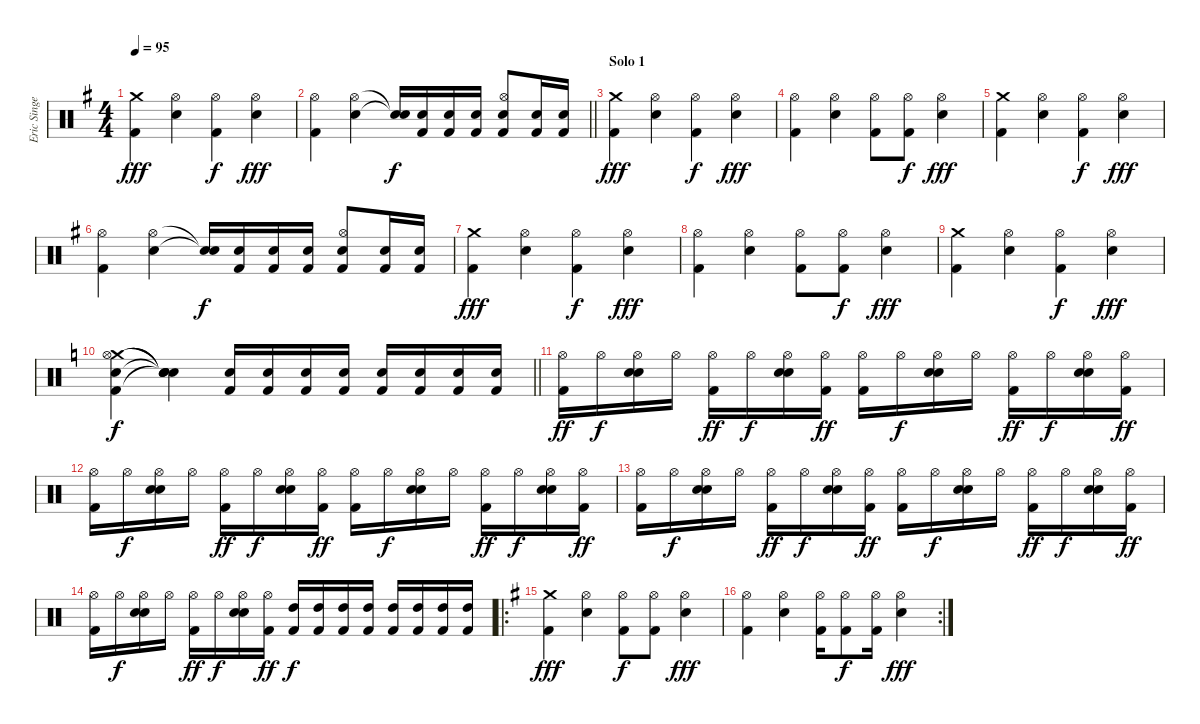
\track ("Eric Singer" "Eric Singe") {instrument percussion}
\staff {score}
\articulation defaults
\ts (4 4)
\tempo 95
\clef neutral
\ks eminor
("Crash medium (hit)" "Kick (hit) 2").4{dy fff} ("Hi-Hat (open)" "Electric Snare (hit)").4 ("Hi-Hat (open)" "Kick (hit) 2").4{dy f} ("Hi-Hat (open)" "Electric Snare (hit)").4{dy fff} |
\barLineRight lightlight
("Hi-Hat (open)" "Kick (hit) 2").4 ("Hi-Hat (open)" "Electric Snare (hit)").4 ("Snare (hit)"{t} "Snare (hit)"{t}).16{dy f} ("Electric Snare (hit)" "Kick (hit) 2").16 ("Electric Snare (hit)" "Kick (hit) 2").16 ("Electric Snare (hit)" "Kick (hit) 2").16 ("Hi-Hat (open)" "Snare (hit) 2" "Kick (hit) 2").8 ("Snare (hit) 2" "Kick (hit) 2").16 ("Snare (hit) 2" "Kick (hit) 2").16 |
\section ("" "Solo 1")
("Crash medium (hit)" "Kick (hit) 2").4{dy fff} ("Hi-Hat (open)" "Electric Snare (hit)").4 ("Hi-Hat (open)" "Kick (hit) 2").4{dy f} ("Hi-Hat (open)" "Electric Snare (hit)").4{dy fff} |
("Hi-Hat (open)" "Kick (hit) 2").4 ("Hi-Hat (open)" "Electric Snare (hit)").4 ("Hi-Hat (open)" "Kick (hit) 2").8 ("Hi-Hat (open)" "Kick (hit) 2").8{dy f} ("Hi-Hat (open)" "Electric Snare (hit)").4{dy fff} |
("Crash medium (hit)" "Kick (hit) 2").4 ("Hi-Hat (open)" "Electric Snare (hit)").4 ("Hi-Hat (open)" "Kick (hit) 2").4{dy f} ("Hi-Hat (open)" "Electric Snare (hit)").4{dy fff} |
("Hi-Hat (open)" "Kick (hit) 2").4 ("Hi-Hat (open)" "Electric Snare (hit)").4 ("Snare (hit)"{t} "Snare (hit)"{t}).16{dy f} ("Electric Snare (hit)" "Kick (hit) 2").16 ("Electric Snare (hit)" "Kick (hit) 2").16 ("Electric Snare (hit)" "Kick (hit) 2").16 ("Hi-Hat (open)" "Snare (hit) 2" "Kick (hit) 2").8 ("Snare (hit) 2" "Kick (hit) 2").16 ("Snare (hit) 2" "Kick (hit) 2").16 |
("Crash medium (hit)" "Kick (hit) 2").4{dy fff} ("Hi-Hat (open)" "Electric Snare (hit)").4 ("Hi-Hat (open)" "Kick (hit) 2").4{dy f} ("Hi-Hat (open)" "Electric Snare (hit)").4{dy fff} |
("Hi-Hat (open)" "Kick (hit) 2").4 ("Hi-Hat (open)" "Electric Snare (hit)").4 ("Hi-Hat (open)" "Kick (hit) 2").8 ("Hi-Hat (open)" "Kick (hit) 2").8{dy f} ("Hi-Hat (open)" "Electric Snare (hit)").4{dy fff} |
("Crash medium (hit)" "Kick (hit) 2").4 ("Hi-Hat (open)" "Electric Snare (hit)").4 ("Hi-Hat (open)" "Kick (hit) 2").4{dy f} ("Hi-Hat (open)" "Electric Snare (hit)").4{dy fff} |
\barLineRight lightlight
\ks c
("Crash medium (hit)" "Hi-Hat (open)" "Snare (hit) 2" "Kick (hit) 2").4{dy f} ("Snare (hit)"{t} "Snare (hit)"{t} "Snare (hit)"{t} "Snare (hit)"{t}).4 ("Electric Snare (hit)" "Kick (hit) 2").16 ("Electric Snare (hit)" "Kick (hit) 2").16 ("Electric Snare (hit)" "Kick (hit) 2").16 ("Electric Snare (hit)" "Kick (hit) 2").16 ("Electric Snare (hit)" "Kick (hit) 2").16 ("Electric Snare (hit)" "Kick (hit) 2").16 ("Electric Snare (hit)" "Kick (hit) 2").16 ("Electric Snare (hit)" "Kick (hit) 2").16 |
("Hi-Hat (open)" "Kick (hit) 2").16{dy ff} "Hi-Hat (open)".16{dy f} ("Hi-Hat (open)" "Electric Snare (hit)" "Snare (hit) 2").16 "Hi-Hat (open)".16 ("Hi-Hat (open)" "Kick (hit) 2").16{dy ff} "Hi-Hat (open)".16{dy f} ("Hi-Hat (open)" "Electric Snare (hit)" "Snare (hit) 2").16 ("Hi-Hat (open)" "Kick (hit) 2").16{dy ff} ("Hi-Hat (open)" "Kick (hit) 2").16 "Hi-Hat (open)".16{dy f} ("Hi-Hat (open)" "Electric Snare (hit)" "Snare (hit) 2").16 "Hi-Hat (open)".16 ("Hi-Hat (open)" "Kick (hit) 2").16{dy ff} "Hi-Hat (open)".16{dy f} ("Hi-Hat (open)" "Electric Snare (hit)" "Snare (hit) 2").16 ("Hi-Hat (open)" "Kick (hit) 2").16{dy ff} |
("Hi-Hat (open)" "Kick (hit) 2").16 "Hi-Hat (open)".16{dy f} ("Hi-Hat (open)" "Electric Snare (hit)" "Snare (hit) 2").16 "Hi-Hat (open)".16 ("Hi-Hat (open)" "Kick (hit) 2").16{dy ff} "Hi-Hat (open)".16{dy f} ("Hi-Hat (open)" "Electric Snare (hit)" "Snare (hit) 2").16 ("Hi-Hat (open)" "Kick (hit) 2").16{dy ff} ("Hi-Hat (open)" "Kick (hit) 2").16 "Hi-Hat (open)".16{dy f} ("Hi-Hat (open)" "Electric Snare (hit)" "Snare (hit) 2").16 "Hi-Hat (open)".16 ("Hi-Hat (open)" "Kick (hit) 2").16{dy ff} "Hi-Hat (open)".16{dy f} ("Hi-Hat (open)" "Electric Snare (hit)" "Snare (hit) 2").16 ("Hi-Hat (open)" "Kick (hit) 2").16{dy ff} |
("Hi-Hat (open)" "Kick (hit) 2").16 "Hi-Hat (open)".16{dy f} ("Hi-Hat (open)" "Electric Snare (hit)" "Snare (hit) 2").16 "Hi-Hat (open)".16 ("Hi-Hat (open)" "Kick (hit) 2").16{dy ff} "Hi-Hat (open)".16{dy f} ("Hi-Hat (open)" "Electric Snare (hit)" "Snare (hit) 2").16 ("Hi-Hat (open)" "Kick (hit) 2").16{dy ff} ("Hi-Hat (open)" "Kick (hit) 2").16 "Hi-Hat (open)".16{dy f} ("Hi-Hat (open)" "Electric Snare (hit)" "Snare (hit) 2").16 "Hi-Hat (open)".16 ("Hi-Hat (open)" "Kick (hit) 2").16{dy ff} "Hi-Hat (open)".16{dy f} ("Hi-Hat (open)" "Electric Snare (hit)" "Snare (hit) 2").16 ("Hi-Hat (open)" "Kick (hit) 2").16{dy ff} |
("Hi-Hat (open)" "Kick (hit) 2").16 "Hi-Hat (open)".16{dy f} ("Hi-Hat (open)" "Electric Snare (hit)" "Snare (hit) 2").16 "Hi-Hat (open)".16 ("Hi-Hat (open)" "Kick (hit) 2").16{dy ff} "Hi-Hat (open)".16{dy f} ("Hi-Hat (open)" "Electric Snare (hit)" "Snare (hit) 2").16 ("Hi-Hat (open)" "Kick (hit) 2").16{dy ff} ("High Tom (hit)" "Kick (hit) 2").16{dy f} ("High Tom (hit)" "Kick (hit) 2").16 ("High Tom (hit)" "Kick (hit) 2").16 ("High Tom (hit)" "Kick (hit) 2").16 ("High Tom (hit)" "Kick (hit) 2").16 ("High Tom (hit)" "Kick (hit) 2").16 ("High Tom (hit)" "Kick (hit) 2").16 ("High Tom (hit)" "Kick (hit) 2").16 |
\ro
\ks eminor
("Crash medium (hit)" "Kick (hit) 2").4{dy fff} ("Hi-Hat (open)" "Electric Snare (hit)").4 ("Hi-Hat (open)" "Kick (hit) 2").8{dy f} ("Hi-Hat (open)" "Kick (hit) 2").8 ("Hi-Hat (open)" "Electric Snare (hit)").4{dy fff} |
\rc 2
("Hi-Hat (open)" "Kick (hit) 2").4 ("Hi-Hat (open)" "Electric Snare (hit)").4 ("Hi-Hat (open)" "Kick (hit) 2").16 ("Hi-Hat (open)" "Kick (hit) 2").8{dy f} ("Hi-Hat (open)" "Kick (hit) 2").16 ("Hi-Hat (open)" "Electric Snare (hit)").4{dy fff}
